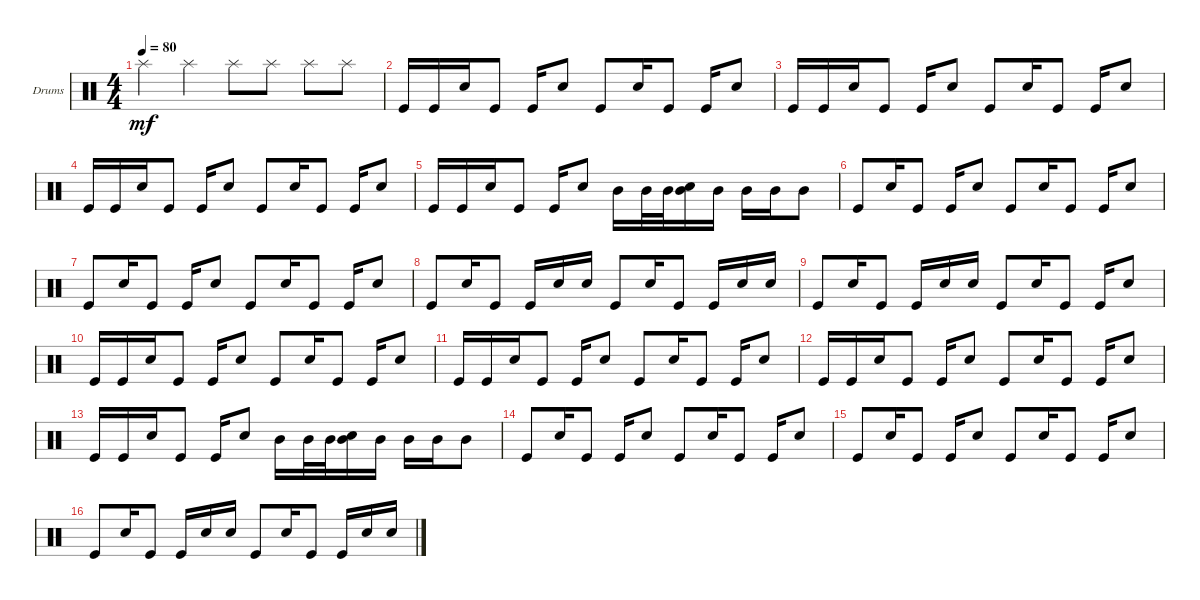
\defaultSystemsLayout 4
\bracketExtendMode groupsimilarinstruments
\firstSystemTrackNameOrientation horizontal
\otherSystemsTrackNameOrientation horizontal
\track ("Барабаны" "Drums") {instrument percussion}
\staff {score}
\articulation defaults
\ts (4 4)
\tempo 80
\clef neutral
\ks c "Splash (hit)".4{dy mf} "Splash (hit)".4 "Splash (hit)".8 "Splash (hit)".8 "Splash (hit)".8 "Splash (hit)".8
|
"Kick (hit)".16 "Kick (hit)".16 "Snare (hit) 2".16 "Kick (hit)".8 "Kick (hit)".16 "Snare (hit) 2".8 "Kick (hit)".8 "Snare (hit) 2".16 "Kick (hit)".8 "Kick (hit)".16 "Snare (hit) 2".8 |
"Kick (hit)".16 "Kick (hit)".16 "Snare (hit) 2".16 "Kick (hit)".8 "Kick (hit)".16 "Snare (hit) 2".8 "Kick (hit)".8 "Snare (hit) 2".16 "Kick (hit)".8 "Kick (hit)".16 "Snare (hit) 2".8 |
"Kick (hit)".16 "Kick (hit)".16 "Snare (hit) 2".16 "Kick (hit)".8 "Kick (hit)".16 "Snare (hit) 2".8 "Kick (hit)".8 "Snare (hit) 2".16 "Kick (hit)".8 "Kick (hit)".16 "Snare (hit) 2".8 |
"Kick (hit)".16 "Kick (hit)".16 "Snare (hit) 2".16 "Kick (hit)".8 "Kick (hit)".16 "Snare (hit) 2".8 "Mid Tom (hit)".16 "Mid Tom (hit)".32 "Mid Tom (hit)".32 ("Mid Tom (hit)" "Snare (hit) 2").16 "Mid Tom (hit)".16 "Mid Tom (hit)".16 "Mid Tom (hit)".16 "Mid Tom (hit)".8 |
"Kick (hit)".8 "Snare (hit) 2".16 "Kick (hit)".8 "Kick (hit)".16 "Snare (hit) 2".8 "Kick (hit)".8 "Snare (hit) 2".16 "Kick (hit)".8 "Kick (hit)".16 "Snare (hit) 2".8 |
"Kick (hit)".8 "Snare (hit) 2".16 "Kick (hit)".8 "Kick (hit)".16 "Snare (hit) 2".8 "Kick (hit)".8 "Snare (hit) 2".16 "Kick (hit)".8 "Kick (hit)".16 "Snare (hit) 2".8 |
"Kick (hit)".8 "Snare (hit) 2".16 "Kick (hit)".8 "Kick (hit)".16 "Snare (hit) 2".16 "Snare (hit) 2".16 "Kick (hit)".8 "Snare (hit) 2".16 "Kick (hit)".8 "Kick (hit)".16 "Snare (hit) 2".16 "Snare (hit) 2".16 |
"Kick (hit)".8 "Snare (hit) 2".16 "Kick (hit)".8 "Kick (hit)".16 "Snare (hit) 2".16 "Snare (hit) 2".16 "Kick (hit)".8 "Snare (hit) 2".16 "Kick (hit)".8 "Kick (hit)".16 "Snare (hit) 2".8 |
"Kick (hit)".16 "Kick (hit)".16 "Snare (hit) 2".16 "Kick (hit)".8 "Kick (hit)".16 "Snare (hit) 2".8 "Kick (hit)".8 "Snare (hit) 2".16 "Kick (hit)".8 "Kick (hit)".16 "Snare (hit) 2".8 |
"Kick (hit)".16 "Kick (hit)".16 "Snare (hit) 2".16 "Kick (hit)".8 "Kick (hit)".16 "Snare (hit) 2".8 "Kick (hit)".8 "Snare (hit) 2".16 "Kick (hit)".8 "Kick (hit)".16 "Snare (hit) 2".8 |
"Kick (hit)".16 "Kick (hit)".16 "Snare (hit) 2".16 "Kick (hit)".8 "Kick (hit)".16 "Snare (hit) 2".8 "Kick (hit)".8 "Snare (hit) 2".16 "Kick (hit)".8 "Kick (hit)".16 "Snare (hit) 2".8 |
"Kick (hit)".16 "Kick (hit)".16 "Snare (hit) 2".16 "Kick (hit)".8 "Kick (hit)".16 "Snare (hit) 2".8 "Mid Tom (hit)".16 "Mid Tom (hit)".32 "Mid Tom (hit)".32 ("Mid Tom (hit)" "Snare (hit) 2").16 "Mid Tom (hit)".16 "Mid Tom (hit)".16 "Mid Tom (hit)".16 "Mid Tom (hit)".8 |
"Kick (hit)".8 "Snare (hit) 2".16 "Kick (hit)".8 "Kick (hit)".16 "Snare (hit) 2".8 "Kick (hit)".8 "Snare (hit) 2".16 "Kick (hit)".8 "Kick (hit)".16 "Snare (hit) 2".8 |
"Kick (hit)".8 "Snare (hit) 2".16 "Kick (hit)".8 "Kick (hit)".16 "Snare (hit) 2".8 "Kick (hit)".8 "Snare (hit) 2".16 "Kick (hit)".8 "Kick (hit)".16 "Snare (hit) 2".8 |
"Kick (hit)".8 "Snare (hit) 2".16 "Kick (hit)".8 "Kick (hit)".16 "Snare (hit) 2".16 "Snare (hit) 2".16 "Kick (hit)".8 "Snare (hit) 2".16 "Kick (hit)".8 "Kick (hit)".16 "Snare (hit) 2".16 "Snare (hit) 2".16
